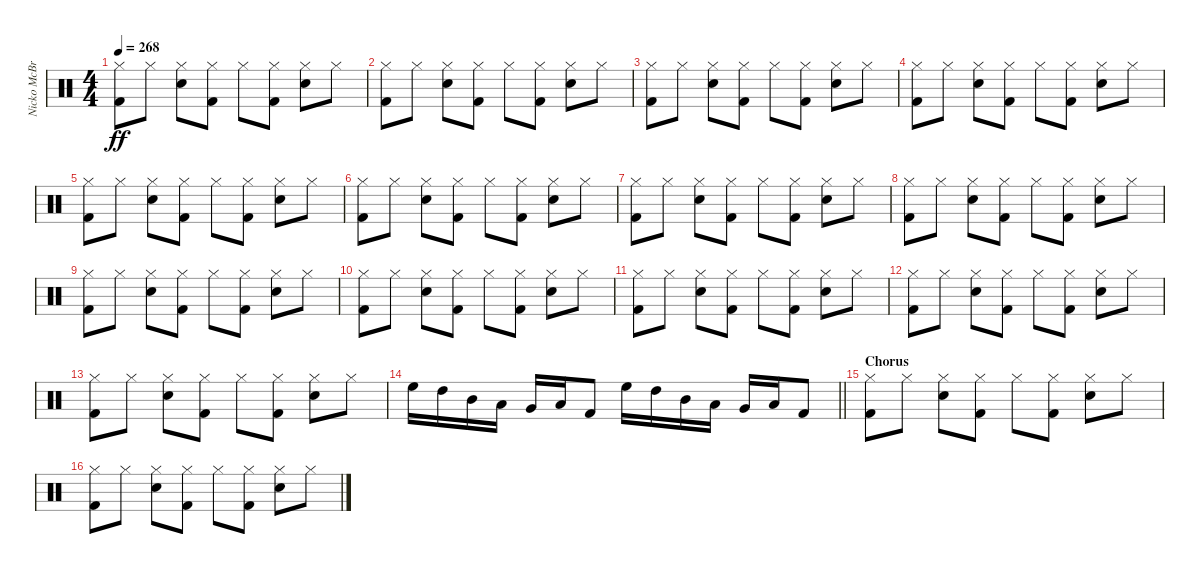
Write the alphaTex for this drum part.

\track ("Nicko McBrain" "Nicko McBr") {instrument percussion}
\staff {score}
\articulation defaults
\ts (4 4)
\tempo 268
\clef neutral
\ks c
("Kick (hit) 2" "Hi-Hat (closed)").8{dy ff} "Hi-Hat (closed)".8 ("Snare (hit) 2" "Hi-Hat (closed)").8 ("Kick (hit) 2" "Hi-Hat (closed)").8 "Hi-Hat (closed)".8 ("Kick (hit) 2" "Hi-Hat (closed)").8 ("Snare (hit) 2" "Hi-Hat (closed)").8 "Hi-Hat (closed)".8 |
("Kick (hit) 2" "Hi-Hat (closed)").8 "Hi-Hat (closed)".8 ("Snare (hit) 2" "Hi-Hat (closed)").8 ("Kick (hit) 2" "Hi-Hat (closed)").8 "Hi-Hat (closed)".8 ("Kick (hit) 2" "Hi-Hat (closed)").8 ("Snare (hit) 2" "Hi-Hat (closed)").8 "Hi-Hat (closed)".8 |
("Kick (hit) 2" "Hi-Hat (closed)").8 "Hi-Hat (closed)".8 ("Snare (hit) 2" "Hi-Hat (closed)").8 ("Kick (hit) 2" "Hi-Hat (closed)").8 "Hi-Hat (closed)".8 ("Kick (hit) 2" "Hi-Hat (closed)").8 ("Snare (hit) 2" "Hi-Hat (closed)").8 "Hi-Hat (closed)".8 |
("Kick (hit) 2" "Hi-Hat (closed)").8 "Hi-Hat (closed)".8 ("Snare (hit) 2" "Hi-Hat (closed)").8 ("Kick (hit) 2" "Hi-Hat (closed)").8 "Hi-Hat (closed)".8 ("Kick (hit) 2" "Hi-Hat (closed)").8 ("Snare (hit) 2" "Hi-Hat (closed)").8 "Hi-Hat (closed)".8 |
("Kick (hit) 2" "Hi-Hat (closed)").8 "Hi-Hat (closed)".8 ("Snare (hit) 2" "Hi-Hat (closed)").8 ("Kick (hit) 2" "Hi-Hat (closed)").8 "Hi-Hat (closed)".8 ("Kick (hit) 2" "Hi-Hat (closed)").8 ("Snare (hit) 2" "Hi-Hat (closed)").8 "Hi-Hat (closed)".8 |
("Kick (hit) 2" "Hi-Hat (closed)").8 "Hi-Hat (closed)".8 ("Snare (hit) 2" "Hi-Hat (closed)").8 ("Kick (hit) 2" "Hi-Hat (closed)").8 "Hi-Hat (closed)".8 ("Kick (hit) 2" "Hi-Hat (closed)").8 ("Snare (hit) 2" "Hi-Hat (closed)").8 "Hi-Hat (closed)".8 |
("Kick (hit) 2" "Hi-Hat (closed)").8 "Hi-Hat (closed)".8 ("Snare (hit) 2" "Hi-Hat (closed)").8 ("Kick (hit) 2" "Hi-Hat (closed)").8 "Hi-Hat (closed)".8 ("Kick (hit) 2" "Hi-Hat (closed)").8 ("Snare (hit) 2" "Hi-Hat (closed)").8 "Hi-Hat (closed)".8 |
("Kick (hit) 2" "Hi-Hat (closed)").8 "Hi-Hat (closed)".8 ("Snare (hit) 2" "Hi-Hat (closed)").8 ("Kick (hit) 2" "Hi-Hat (closed)").8 "Hi-Hat (closed)".8 ("Kick (hit) 2" "Hi-Hat (closed)").8 ("Snare (hit) 2" "Hi-Hat (closed)").8 "Hi-Hat (closed)".8 |
("Kick (hit) 2" "Hi-Hat (closed)").8 "Hi-Hat (closed)".8 ("Snare (hit) 2" "Hi-Hat (closed)").8 ("Kick (hit) 2" "Hi-Hat (closed)").8 "Hi-Hat (closed)".8 ("Kick (hit) 2" "Hi-Hat (closed)").8 ("Snare (hit) 2" "Hi-Hat (closed)").8 "Hi-Hat (closed)".8 |
("Kick (hit) 2" "Hi-Hat (closed)").8 "Hi-Hat (closed)".8 ("Snare (hit) 2" "Hi-Hat (closed)").8 ("Kick (hit) 2" "Hi-Hat (closed)").8 "Hi-Hat (closed)".8 ("Kick (hit) 2" "Hi-Hat (closed)").8 ("Snare (hit) 2" "Hi-Hat (closed)").8 "Hi-Hat (closed)".8 |
("Kick (hit) 2" "Hi-Hat (closed)").8 "Hi-Hat (closed)".8 ("Snare (hit) 2" "Hi-Hat (closed)").8 ("Kick (hit) 2" "Hi-Hat (closed)").8 "Hi-Hat (closed)".8 ("Kick (hit) 2" "Hi-Hat (closed)").8 ("Snare (hit) 2" "Hi-Hat (closed)").8 "Hi-Hat (closed)".8 |
("Kick (hit) 2" "Hi-Hat (closed)").8 "Hi-Hat (closed)".8 ("Snare (hit) 2" "Hi-Hat (closed)").8 ("Kick (hit) 2" "Hi-Hat (closed)").8 "Hi-Hat (closed)".8 ("Kick (hit) 2" "Hi-Hat (closed)").8 ("Snare (hit) 2" "Hi-Hat (closed)").8 "Hi-Hat (closed)".8 |
("Kick (hit) 2" "Hi-Hat (closed)").8 "Hi-Hat (closed)".8 ("Snare (hit) 2" "Hi-Hat (closed)").8 ("Kick (hit) 2" "Hi-Hat (closed)").8 "Hi-Hat (closed)".8 ("Kick (hit) 2" "Hi-Hat (closed)").8 ("Snare (hit) 2" "Hi-Hat (closed)").8 "Hi-Hat (closed)".8 |
\barLineRight lightlight "High Floor Tom (hit)".16 "High Tom (hit)".16 "Mid Tom (hit)".16 "Low Tom (hit)".16 "Very Low Tom (hit)".16 "Low Floor Tom (hit)".16 "Kick (hit) 2".8 "High Floor Tom (hit)".16 "High Tom (hit)".16 "Mid Tom (hit)".16 "Low Tom (hit)".16 "Very Low Tom (hit)".16 "Low Floor Tom (hit)".16 "Kick (hit) 2".8
|
\section ("" "Chorus")
("Kick (hit) 2" "Hi-Hat (closed)").8 "Hi-Hat (closed)".8 ("Snare (hit) 2" "Hi-Hat (closed)").8 ("Kick (hit) 2" "Hi-Hat (closed)").8 "Hi-Hat (closed)".8 ("Kick (hit) 2" "Hi-Hat (closed)").8 ("Snare (hit) 2" "Hi-Hat (closed)").8 "Hi-Hat (closed)".8 |
("Kick (hit) 2" "Hi-Hat (closed)").8 "Hi-Hat (closed)".8 ("Snare (hit) 2" "Hi-Hat (closed)").8 ("Kick (hit) 2" "Hi-Hat (closed)").8 "Hi-Hat (closed)".8 ("Kick (hit) 2" "Hi-Hat (closed)").8 ("Snare (hit) 2" "Hi-Hat (closed)").8 "Hi-Hat (closed)".8
